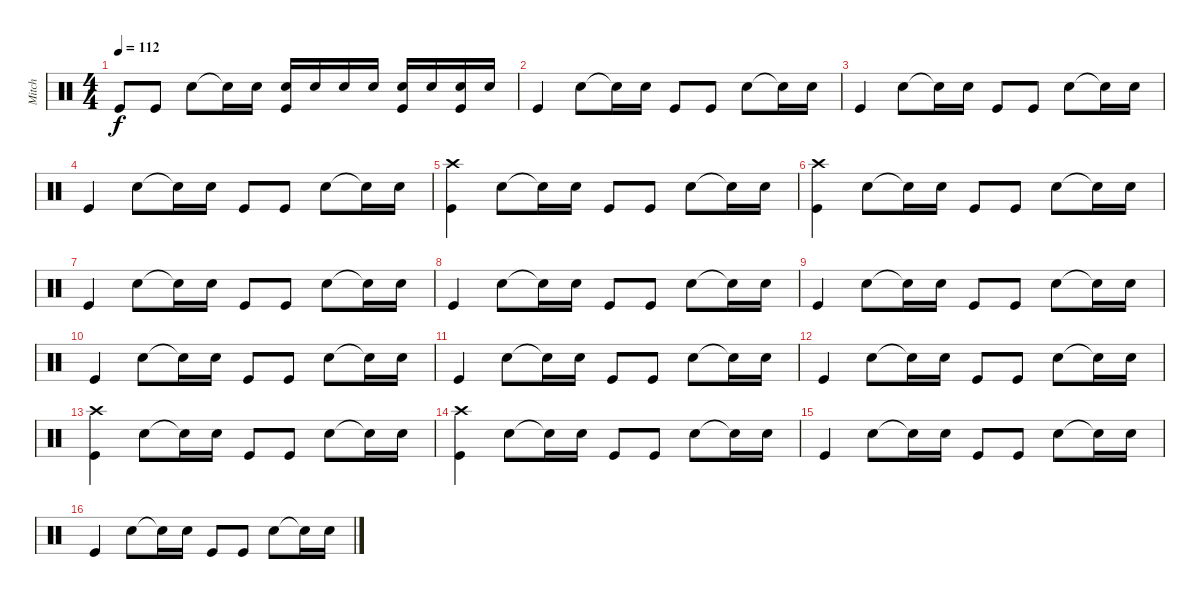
\track ("Mitch" "Mitch") {instrument percussion}
\staff {score}
\articulation defaults
\ts (4 4)
\tempo 112
\clef neutral
\ks c "Kick (hit)".8{dy f} "Kick (hit)".8 "Electric Snare (hit)".8 "Snare (hit)"{t}.16 "Electric Snare (hit)".16
("Electric Snare (hit)" "Kick (hit)").16 "Electric Snare (hit)".16 "Electric Snare (hit)".16 "Electric Snare (hit)".16 ("Electric Snare (hit)" "Kick (hit)").16 "Electric Snare (hit)".16 ("Electric Snare (hit)" "Kick (hit)").16 "Electric Snare (hit)".16 |
"Kick (hit)".4 "Electric Snare (hit)".8 "Electric Snare (hit)"{t}.16 "Electric Snare (hit)".16 "Kick (hit)".8 "Kick (hit)".8 "Electric Snare (hit)".8 "Snare (hit)"{t}.16 "Electric Snare (hit)".16 |
"Kick (hit)".4 "Electric Snare (hit)".8 "Electric Snare (hit)"{t}.16 "Electric Snare (hit)".16 "Kick (hit)".8 "Kick (hit)".8 "Electric Snare (hit)".8 "Snare (hit)"{t}.16 "Electric Snare (hit)".16 |
"Kick (hit)".4 "Electric Snare (hit)".8 "Electric Snare (hit)"{t}.16 "Electric Snare (hit)".16 "Kick (hit)".8 "Kick (hit)".8 "Electric Snare (hit)".8 "Snare (hit)"{t}.16 "Electric Snare (hit)".16 |
("Crash high (hit)" "Kick (hit)").4 "Electric Snare (hit)".8 "Electric Snare (hit)"{t}.16 "Electric Snare (hit)".16 "Kick (hit)".8 "Kick (hit)".8 "Electric Snare (hit)".8 "Snare (hit)"{t}.16 "Electric Snare (hit)".16 |
("Crash high (hit)" "Kick (hit)").4 "Electric Snare (hit)".8 "Electric Snare (hit)"{t}.16 "Electric Snare (hit)".16 "Kick (hit)".8 "Kick (hit)".8 "Electric Snare (hit)".8 "Snare (hit)"{t}.16 "Electric Snare (hit)".16 |
"Kick (hit)".4 "Electric Snare (hit)".8 "Electric Snare (hit)"{t}.16 "Electric Snare (hit)".16 "Kick (hit)".8 "Kick (hit)".8 "Electric Snare (hit)".8 "Snare (hit)"{t}.16 "Electric Snare (hit)".16 |
"Kick (hit)".4 "Electric Snare (hit)".8 "Electric Snare (hit)"{t}.16 "Electric Snare (hit)".16 "Kick (hit)".8 "Kick (hit)".8 "Electric Snare (hit)".8 "Snare (hit)"{t}.16 "Electric Snare (hit)".16 |
"Kick (hit)".4 "Electric Snare (hit)".8 "Electric Snare (hit)"{t}.16 "Electric Snare (hit)".16 "Kick (hit)".8 "Kick (hit)".8 "Electric Snare (hit)".8 "Snare (hit)"{t}.16 "Electric Snare (hit)".16 |
"Kick (hit)".4 "Electric Snare (hit)".8 "Electric Snare (hit)"{t}.16 "Electric Snare (hit)".16 "Kick (hit)".8 "Kick (hit)".8 "Electric Snare (hit)".8 "Snare (hit)"{t}.16 "Electric Snare (hit)".16 |
"Kick (hit)".4 "Electric Snare (hit)".8 "Electric Snare (hit)"{t}.16 "Electric Snare (hit)".16 "Kick (hit)".8 "Kick (hit)".8 "Electric Snare (hit)".8 "Snare (hit)"{t}.16 "Electric Snare (hit)".16 |
"Kick (hit)".4 "Electric Snare (hit)".8 "Electric Snare (hit)"{t}.16 "Electric Snare (hit)".16 "Kick (hit)".8 "Kick (hit)".8 "Electric Snare (hit)".8 "Snare (hit)"{t}.16 "Electric Snare (hit)".16 |
("Crash high (hit)" "Kick (hit)").4 "Electric Snare (hit)".8 "Electric Snare (hit)"{t}.16 "Electric Snare (hit)".16 "Kick (hit)".8 "Kick (hit)".8 "Electric Snare (hit)".8 "Snare (hit)"{t}.16 "Electric Snare (hit)".16 |
("Crash high (hit)" "Kick (hit)").4 "Electric Snare (hit)".8 "Electric Snare (hit)"{t}.16 "Electric Snare (hit)".16 "Kick (hit)".8 "Kick (hit)".8 "Electric Snare (hit)".8 "Snare (hit)"{t}.16 "Electric Snare (hit)".16 |
"Kick (hit)".4 "Electric Snare (hit)".8 "Electric Snare (hit)"{t}.16 "Electric Snare (hit)".16 "Kick (hit)".8 "Kick (hit)".8 "Electric Snare (hit)".8 "Snare (hit)"{t}.16 "Electric Snare (hit)".16 |
"Kick (hit)".4 "Electric Snare (hit)".8 "Electric Snare (hit)"{t}.16 "Electric Snare (hit)".16 "Kick (hit)".8 "Kick (hit)".8 "Electric Snare (hit)".8 "Snare (hit)"{t}.16 "Electric Snare (hit)".16
